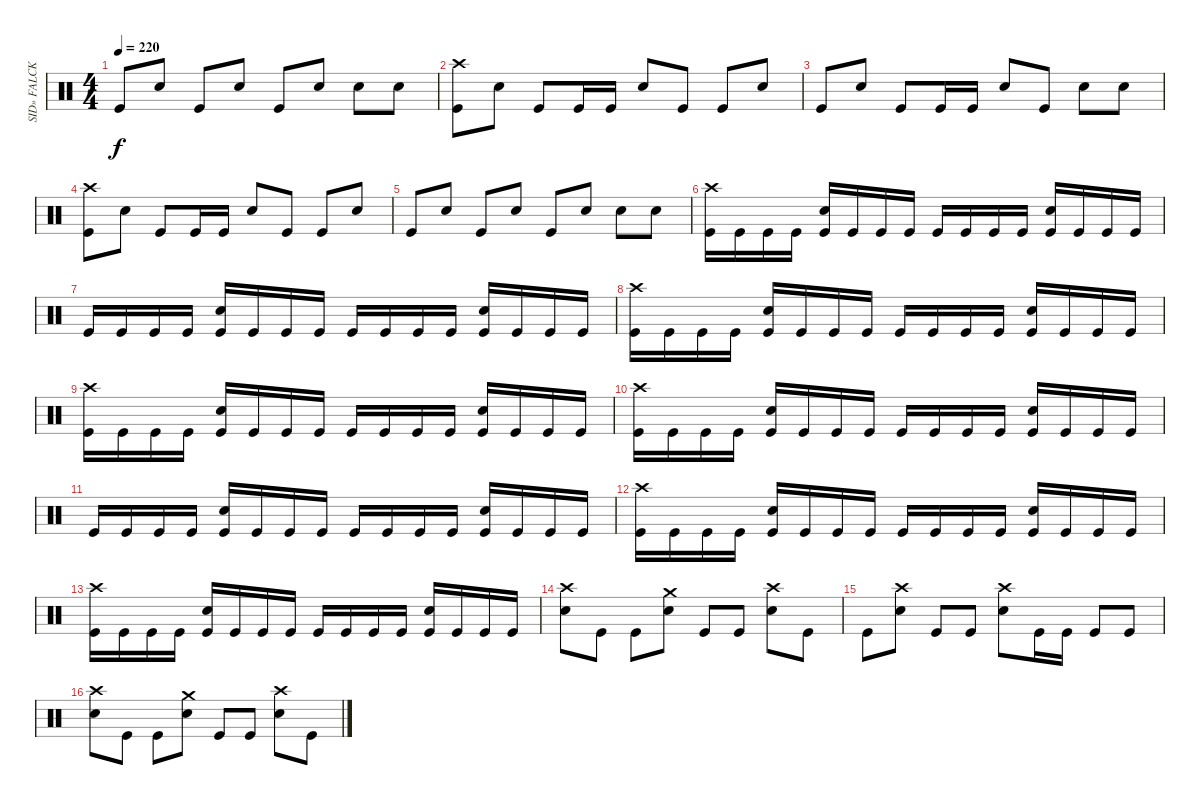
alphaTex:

\track ("SID» FALCK- Drums " "SID» FALCK") {instrument percussion}
\staff {score}
\articulation defaults
\ts (4 4)
\tempo 220
\clef neutral
\ks c "Kick (hit)".8{dy f} "Electric Snare (hit)".8 "Kick (hit)".8 "Electric Snare (hit)".8 "Kick (hit)".8 "Electric Snare (hit)".8 "Electric Snare (hit)".8 "Electric Snare (hit)".8
|
("Crash high (hit)" "Kick (hit)").8 "Electric Snare (hit)".8 "Kick (hit)".8 "Kick (hit)".16 "Kick (hit)".16 "Electric Snare (hit)".8 "Kick (hit)".8 "Kick (hit)".8 "Electric Snare (hit)".8 |
"Kick (hit)".8 "Electric Snare (hit)".8 "Kick (hit)".8 "Kick (hit)".16 "Kick (hit)".16 "Electric Snare (hit)".8 "Kick (hit)".8 "Electric Snare (hit)".8 "Electric Snare (hit)".8 |
("Crash high (hit)" "Kick (hit)").8 "Electric Snare (hit)".8 "Kick (hit)".8 "Kick (hit)".16 "Kick (hit)".16 "Electric Snare (hit)".8 "Kick (hit)".8 "Kick (hit)".8 "Electric Snare (hit)".8 |
"Kick (hit)".8 "Electric Snare (hit)".8 "Kick (hit)".8 "Electric Snare (hit)".8 "Kick (hit)".8 "Electric Snare (hit)".8 "Electric Snare (hit)".8 "Electric Snare (hit)".8 |
("Crash high (hit)" "Kick (hit)").16 "Kick (hit)".16 "Kick (hit)".16 "Kick (hit)".16 ("Electric Snare (hit)" "Kick (hit)").16 "Kick (hit)".16 "Kick (hit)".16 "Kick (hit)".16 "Kick (hit)".16 "Kick (hit)".16 "Kick (hit)".16 "Kick (hit)".16 ("Electric Snare (hit)" "Kick (hit)").16 "Kick (hit)".16 "Kick (hit)".16 "Kick (hit)".16 |
"Kick (hit)".16 "Kick (hit)".16 "Kick (hit)".16 "Kick (hit)".16 ("Electric Snare (hit)" "Kick (hit)").16 "Kick (hit)".16 "Kick (hit)".16 "Kick (hit)".16 "Kick (hit)".16 "Kick (hit)".16 "Kick (hit)".16 "Kick (hit)".16 ("Electric Snare (hit)" "Kick (hit)").16 "Kick (hit)".16 "Kick (hit)".16 "Kick (hit)".16 |
("Crash high (hit)" "Kick (hit)").16 "Kick (hit)".16 "Kick (hit)".16 "Kick (hit)".16 ("Electric Snare (hit)" "Kick (hit)").16 "Kick (hit)".16 "Kick (hit)".16 "Kick (hit)".16 "Kick (hit)".16 "Kick (hit)".16 "Kick (hit)".16 "Kick (hit)".16 ("Electric Snare (hit)" "Kick (hit)").16 "Kick (hit)".16 "Kick (hit)".16 "Kick (hit)".16 |
("Crash high (hit)" "Kick (hit)").16 "Kick (hit)".16 "Kick (hit)".16 "Kick (hit)".16 ("Electric Snare (hit)" "Kick (hit)").16 "Kick (hit)".16 "Kick (hit)".16 "Kick (hit)".16 "Kick (hit)".16 "Kick (hit)".16 "Kick (hit)".16 "Kick (hit)".16 ("Electric Snare (hit)" "Kick (hit)").16 "Kick (hit)".16 "Kick (hit)".16 "Kick (hit)".16 |
("Crash high (hit)" "Kick (hit)").16 "Kick (hit)".16 "Kick (hit)".16 "Kick (hit)".16 ("Electric Snare (hit)" "Kick (hit)").16 "Kick (hit)".16 "Kick (hit)".16 "Kick (hit)".16 "Kick (hit)".16 "Kick (hit)".16 "Kick (hit)".16 "Kick (hit)".16 ("Electric Snare (hit)" "Kick (hit)").16 "Kick (hit)".16 "Kick (hit)".16 "Kick (hit)".16 |
"Kick (hit)".16 "Kick (hit)".16 "Kick (hit)".16 "Kick (hit)".16 ("Electric Snare (hit)" "Kick (hit)").16 "Kick (hit)".16 "Kick (hit)".16 "Kick (hit)".16 "Kick (hit)".16 "Kick (hit)".16 "Kick (hit)".16 "Kick (hit)".16 ("Electric Snare (hit)" "Kick (hit)").16 "Kick (hit)".16 "Kick (hit)".16 "Kick (hit)".16 |
("Crash high (hit)" "Kick (hit)").16 "Kick (hit)".16 "Kick (hit)".16 "Kick (hit)".16 ("Electric Snare (hit)" "Kick (hit)").16 "Kick (hit)".16 "Kick (hit)".16 "Kick (hit)".16 "Kick (hit)".16 "Kick (hit)".16 "Kick (hit)".16 "Kick (hit)".16 ("Electric Snare (hit)" "Kick (hit)").16 "Kick (hit)".16 "Kick (hit)".16 "Kick (hit)".16 |
("Crash high (hit)" "Kick (hit)").16 "Kick (hit)".16 "Kick (hit)".16 "Kick (hit)".16 ("Electric Snare (hit)" "Kick (hit)").16 "Kick (hit)".16 "Kick (hit)".16 "Kick (hit)".16 "Kick (hit)".16 "Kick (hit)".16 "Kick (hit)".16 "Kick (hit)".16 ("Electric Snare (hit)" "Kick (hit)").16 "Kick (hit)".16 "Kick (hit)".16 "Kick (hit)".16 |
("Crash high (hit)" "Electric Snare (hit)").8 "Kick (hit)".8 "Kick (hit)".8 ("Crash medium (hit)" "Electric Snare (hit)").8 "Kick (hit)".8 "Kick (hit)".8 ("Crash high (hit)" "Electric Snare (hit)").8 "Kick (hit)".8 |
"Kick (hit)".8 ("Crash high (hit)" "Electric Snare (hit)").8 "Kick (hit)".8 "Kick (hit)".8 ("Crash high (hit)" "Electric Snare (hit)").8 "Kick (hit)".16 "Kick (hit)".16 "Kick (hit)".8 "Kick (hit)".8 |
("Crash high (hit)" "Electric Snare (hit)").8 "Kick (hit)".8 "Kick (hit)".8 ("Crash medium (hit)" "Electric Snare (hit)").8 "Kick (hit)".8 "Kick (hit)".8 ("Crash high (hit)" "Electric Snare (hit)").8 "Kick (hit)".8
